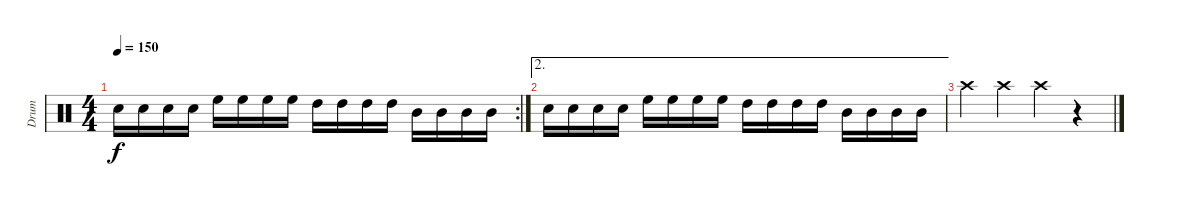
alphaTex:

\track ("Drum" "Drum") {instrument percussion}
\staff {score}
\articulation defaults
\rc 2
\ts (4 4)
\tempo 150
\clef neutral
\ks c "Snare (hit) 2".16{dy f} "Snare (hit) 2".16 "Snare (hit) 2".16 "Snare (hit) 2".16 "High Floor Tom (hit)".16 "High Floor Tom (hit)".16 "High Floor Tom (hit)".16 "High Floor Tom (hit)".16 "High Tom (hit)".16 "High Tom (hit)".16 "High Tom (hit)".16 "High Tom (hit)".16 "Mid Tom (hit)".16 "Mid Tom (hit)".16 "Mid Tom (hit)".16 "Mid Tom (hit)".16
|
\ae 2 "Snare (hit) 2".16 "Snare (hit) 2".16 "Snare (hit) 2".16 "Snare (hit) 2".16 "High Floor Tom (hit)".16 "High Floor Tom (hit)".16 "High Floor Tom (hit)".16 "High Floor Tom (hit)".16 "High Tom (hit)".16 "High Tom (hit)".16 "High Tom (hit)".16 "High Tom (hit)".16 "Mid Tom (hit)".16 "Mid Tom (hit)".16 "Mid Tom (hit)".16 "Mid Tom (hit)".16
|
"Crash high (hit)".4 "Crash high (hit)".4 "Crash high (hit)".4 r.4
